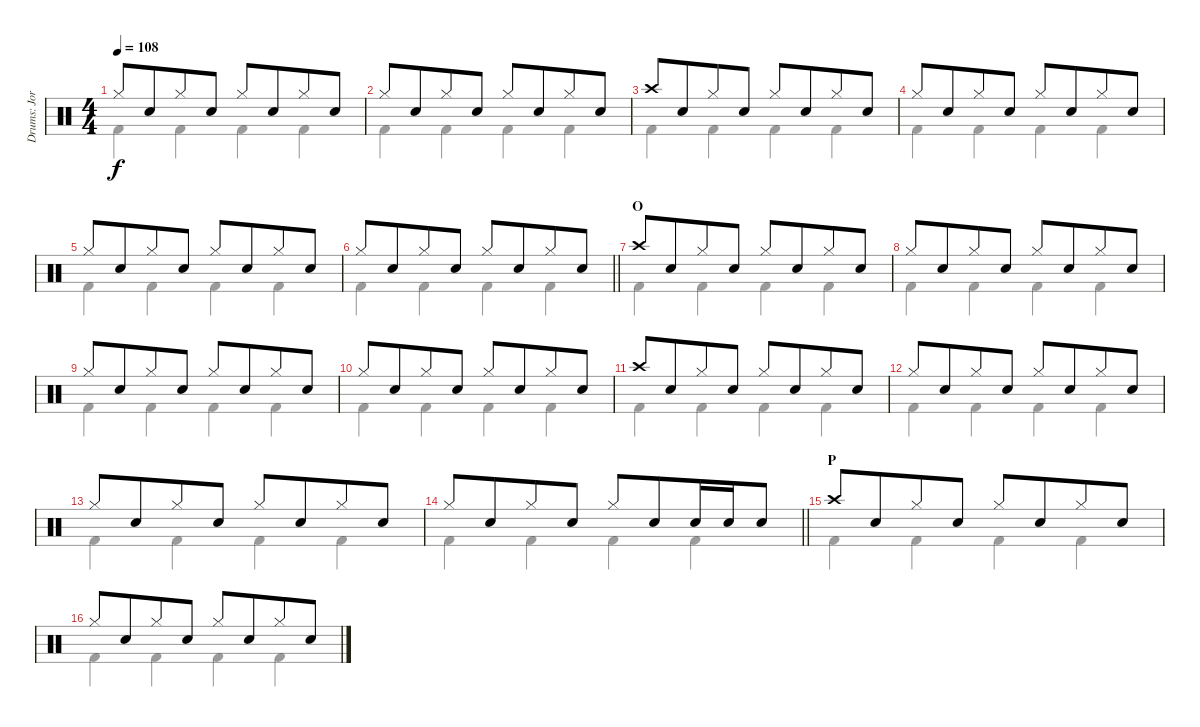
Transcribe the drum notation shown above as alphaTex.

\track ("Drums: Jorg" "Drums: Jor") {instrument percussion}
\staff {score}
\articulation defaults
\voice
\ts (4 4)
\tempo 108
\clef neutral
\ks c "Hi-Hat (closed)".8{dy f} "Snare (hit) 2".8{beam merge} "Hi-Hat (closed)".8 "Snare (hit) 2".8 "Hi-Hat (closed)".8 "Snare (hit) 2".8{beam merge} "Hi-Hat (closed)".8 "Snare (hit) 2".8
|
"Hi-Hat (closed)".8 "Snare (hit) 2".8{beam merge} "Hi-Hat (closed)".8 "Snare (hit) 2".8 "Hi-Hat (closed)".8 "Snare (hit) 2".8{beam merge} "Hi-Hat (closed)".8 "Snare (hit) 2".8 |
"Crash high (hit)".8 "Snare (hit) 2".8{beam merge} "Hi-Hat (closed)".8 "Snare (hit) 2".8 "Hi-Hat (closed)".8 "Snare (hit) 2".8{beam merge} "Hi-Hat (closed)".8 "Snare (hit) 2".8 |
"Hi-Hat (closed)".8 "Snare (hit) 2".8{beam merge} "Hi-Hat (closed)".8 "Snare (hit) 2".8 "Hi-Hat (closed)".8 "Snare (hit) 2".8{beam merge} "Hi-Hat (closed)".8 "Snare (hit) 2".8 |
"Hi-Hat (closed)".8 "Snare (hit) 2".8{beam merge} "Hi-Hat (closed)".8 "Snare (hit) 2".8 "Hi-Hat (closed)".8 "Snare (hit) 2".8{beam merge} "Hi-Hat (closed)".8 "Snare (hit) 2".8 |
\barLineRight lightlight "Hi-Hat (closed)".8 "Snare (hit) 2".8{beam merge} "Hi-Hat (closed)".8 "Snare (hit) 2".8 "Hi-Hat (closed)".8 "Snare (hit) 2".8{beam merge} "Hi-Hat (closed)".8 "Snare (hit) 2".8
|
\section ("" "O")
"Crash high (hit)".8 "Snare (hit) 2".8{beam merge} "Hi-Hat (closed)".8 "Snare (hit) 2".8 "Hi-Hat (closed)".8 "Snare (hit) 2".8{beam merge} "Hi-Hat (closed)".8 "Snare (hit) 2".8 |
"Hi-Hat (closed)".8 "Snare (hit) 2".8{beam merge} "Hi-Hat (closed)".8 "Snare (hit) 2".8 "Hi-Hat (closed)".8 "Snare (hit) 2".8{beam merge} "Hi-Hat (closed)".8 "Snare (hit) 2".8 |
"Hi-Hat (closed)".8 "Snare (hit) 2".8{beam merge} "Hi-Hat (closed)".8 "Snare (hit) 2".8 "Hi-Hat (closed)".8 "Snare (hit) 2".8{beam merge} "Hi-Hat (closed)".8 "Snare (hit) 2".8 |
"Hi-Hat (closed)".8 "Snare (hit) 2".8{beam merge} "Hi-Hat (closed)".8 "Snare (hit) 2".8 "Hi-Hat (closed)".8 "Snare (hit) 2".8{beam merge} "Hi-Hat (closed)".8 "Snare (hit) 2".8 |
"Crash high (hit)".8 "Snare (hit) 2".8{beam merge} "Hi-Hat (closed)".8 "Snare (hit) 2".8 "Hi-Hat (closed)".8 "Snare (hit) 2".8{beam merge} "Hi-Hat (closed)".8 "Snare (hit) 2".8 |
"Hi-Hat (closed)".8 "Snare (hit) 2".8{beam merge} "Hi-Hat (closed)".8 "Snare (hit) 2".8 "Hi-Hat (closed)".8 "Snare (hit) 2".8{beam merge} "Hi-Hat (closed)".8 "Snare (hit) 2".8 |
"Hi-Hat (closed)".8 "Snare (hit) 2".8{beam merge} "Hi-Hat (closed)".8 "Snare (hit) 2".8 "Hi-Hat (closed)".8 "Snare (hit) 2".8{beam merge} "Hi-Hat (closed)".8 "Snare (hit) 2".8 |
\barLineRight lightlight "Hi-Hat (closed)".8 "Snare (hit) 2".8{beam merge} "Hi-Hat (closed)".8 "Snare (hit) 2".8 "Hi-Hat (closed)".8 "Snare (hit) 2".8{beam merge} "Snare (hit) 2".16 "Snare (hit) 2".16 "Snare (hit) 2".8
|
\section ("" "P")
"Crash high (hit)".8 "Snare (hit) 2".8{beam merge} "Hi-Hat (closed)".8 "Snare (hit) 2".8 "Hi-Hat (closed)".8 "Snare (hit) 2".8{beam merge} "Hi-Hat (closed)".8 "Snare (hit) 2".8 |
"Hi-Hat (closed)".8 "Snare (hit) 2".8{beam merge} "Hi-Hat (closed)".8 "Snare (hit) 2".8 "Hi-Hat (closed)".8 "Snare (hit) 2".8{beam merge} "Hi-Hat (closed)".8 "Snare (hit) 2".8
\voice
\clef neutral
\ottava regular
\simile none
\ks c "Kick (hit) 2".4{dy f} "Kick (hit) 2".4 "Kick (hit) 2".4 "Kick (hit) 2".4
|
"Kick (hit) 2".4 "Kick (hit) 2".4 "Kick (hit) 2".4 "Kick (hit) 2".4 |
"Kick (hit) 2".4 "Kick (hit) 2".4 "Kick (hit) 2".4 "Kick (hit) 2".4 |
"Kick (hit) 2".4 "Kick (hit) 2".4 "Kick (hit) 2".4 "Kick (hit) 2".4 |
"Kick (hit) 2".4 "Kick (hit) 2".4 "Kick (hit) 2".4 "Kick (hit) 2".4 |
\barLineRight lightlight "Kick (hit) 2".4 "Kick (hit) 2".4 "Kick (hit) 2".4 "Kick (hit) 2".4
|
"Kick (hit) 2".4 "Kick (hit) 2".4 "Kick (hit) 2".4 "Kick (hit) 2".4 |
"Kick (hit) 2".4 "Kick (hit) 2".4 "Kick (hit) 2".4 "Kick (hit) 2".4 |
"Kick (hit) 2".4 "Kick (hit) 2".4 "Kick (hit) 2".4 "Kick (hit) 2".4 |
"Kick (hit) 2".4 "Kick (hit) 2".4 "Kick (hit) 2".4 "Kick (hit) 2".4 |
"Kick (hit) 2".4 "Kick (hit) 2".4 "Kick (hit) 2".4 "Kick (hit) 2".4 |
"Kick (hit) 2".4 "Kick (hit) 2".4 "Kick (hit) 2".4 "Kick (hit) 2".4 |
"Kick (hit) 2".4 "Kick (hit) 2".4 "Kick (hit) 2".4 "Kick (hit) 2".4 |
\barLineRight lightlight "Kick (hit) 2".4 "Kick (hit) 2".4 "Kick (hit) 2".4 "Kick (hit) 2".4
|
"Kick (hit) 2".4 "Kick (hit) 2".4 "Kick (hit) 2".4 "Kick (hit) 2".4 |
"Kick (hit) 2".4 "Kick (hit) 2".4 "Kick (hit) 2".4 "Kick (hit) 2".4
